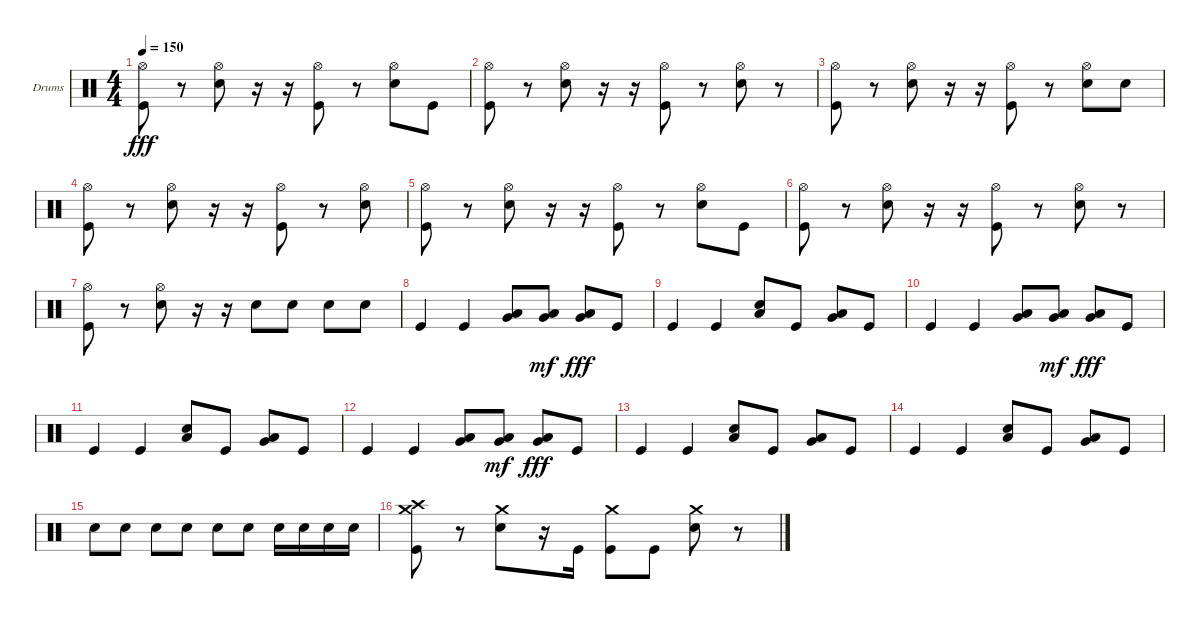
\bracketExtendMode groupsimilarinstruments
\firstSystemTrackNameOrientation horizontal
\otherSystemsTrackNameOrientation horizontal
\track ("Jamie" "Drums") {instrument percussion}
\staff {score}
\articulation defaults
\ts (4 4)
\tempo 150
\clef neutral
\ks c
("Kick (hit)" "Hi-Hat (open)").8{dy fff} r.8 ("Snare (hit) 2" "Hi-Hat (open)").8 r.16 r.16 ("Kick (hit)" "Hi-Hat (open)").8 r.8 ("Snare (hit) 2" "Hi-Hat (open)").8 "Kick (hit)".8 |
("Kick (hit)" "Hi-Hat (open)").8 r.8 ("Snare (hit) 2" "Hi-Hat (open)").8 r.16 r.16 ("Kick (hit)" "Hi-Hat (open)").8 r.8 ("Snare (hit) 2" "Hi-Hat (open)").8 r.8 |
("Kick (hit)" "Hi-Hat (open)").8 r.8 ("Snare (hit) 2" "Hi-Hat (open)").8 r.16 r.16 ("Kick (hit)" "Hi-Hat (open)").8 r.8 ("Snare (hit) 2" "Hi-Hat (open)").8 "Snare (hit) 2".8 |
("Kick (hit)" "Hi-Hat (open)").8 r.8 ("Snare (hit) 2" "Hi-Hat (open)").8 r.16 r.16 ("Kick (hit)" "Hi-Hat (open)").8 r.8 ("Snare (hit) 2" "Hi-Hat (open)").8 |
("Kick (hit)" "Hi-Hat (open)").8 r.8 ("Snare (hit) 2" "Hi-Hat (open)").8 r.16 r.16 ("Kick (hit)" "Hi-Hat (open)").8 r.8 ("Snare (hit) 2" "Hi-Hat (open)").8 "Kick (hit)".8 |
("Kick (hit)" "Hi-Hat (open)").8 r.8 ("Snare (hit) 2" "Hi-Hat (open)").8 r.16 r.16 ("Kick (hit)" "Hi-Hat (open)").8 r.8 ("Snare (hit) 2" "Hi-Hat (open)").8 r.8 |
("Kick (hit)" "Hi-Hat (open)").8 r.8 ("Snare (hit) 2" "Hi-Hat (open)").8 r.16 r.16 "Snare (hit) 2".8 "Snare (hit) 2".8 "Snare (hit) 2".8 "Snare (hit) 2".8 |
"Kick (hit)".4 "Kick (hit)".4 ("Low Tom (hit)" "Very Low Tom (hit)").8 ("Very Low Tom (hit)" "Low Tom (hit)").8{dy mf} ("Very Low Tom (hit)" "Low Tom (hit)").8{dy fff} "Kick (hit)".8 |
"Kick (hit)".4 "Kick (hit)".4 ("Low Tom (hit)" "Snare (hit) 2").8 "Kick (hit)".8 ("Very Low Tom (hit)" "Low Tom (hit)").8 "Kick (hit)".8 |
"Kick (hit)".4 "Kick (hit)".4 ("Low Tom (hit)" "Very Low Tom (hit)").8 ("Very Low Tom (hit)" "Low Tom (hit)").8{dy mf} ("Very Low Tom (hit)" "Low Tom (hit)").8{dy fff} "Kick (hit)".8 |
"Kick (hit)".4 "Kick (hit)".4 ("Low Tom (hit)" "Snare (hit) 2").8 "Kick (hit)".8 ("Very Low Tom (hit)" "Low Tom (hit)").8 "Kick (hit)".8 |
"Kick (hit)".4 "Kick (hit)".4 ("Low Tom (hit)" "Very Low Tom (hit)").8 ("Very Low Tom (hit)" "Low Tom (hit)").8{dy mf} ("Very Low Tom (hit)" "Low Tom (hit)").8{dy fff} "Kick (hit)".8 |
"Kick (hit)".4 "Kick (hit)".4 ("Low Tom (hit)" "Snare (hit) 2").8 "Kick (hit)".8 ("Very Low Tom (hit)" "Low Tom (hit)").8 "Kick (hit)".8 |
"Kick (hit)".4 "Kick (hit)".4 ("Low Tom (hit)" "Snare (hit) 2").8 "Kick (hit)".8 ("Very Low Tom (hit)" "Low Tom (hit)").8 "Kick (hit)".8 |
"Snare (hit) 2".8 "Snare (hit) 2".8 "Snare (hit) 2".8 "Snare (hit) 2".8 "Snare (hit) 2".8 "Snare (hit) 2".8 "Snare (hit) 2".16 "Snare (hit) 2".16 "Snare (hit) 2".16 "Snare (hit) 2".16 |
("Kick (hit)" "Crash medium (hit)" "Crash high (hit)").8 r.8 ("Snare (hit) 2" "Crash medium (hit)").8 r.16 "Kick (hit)".16 ("Kick (hit)" "Crash medium (hit)").8 "Kick (hit)".8 ("Snare (hit) 2" "Crash medium (hit)").8 r.8
